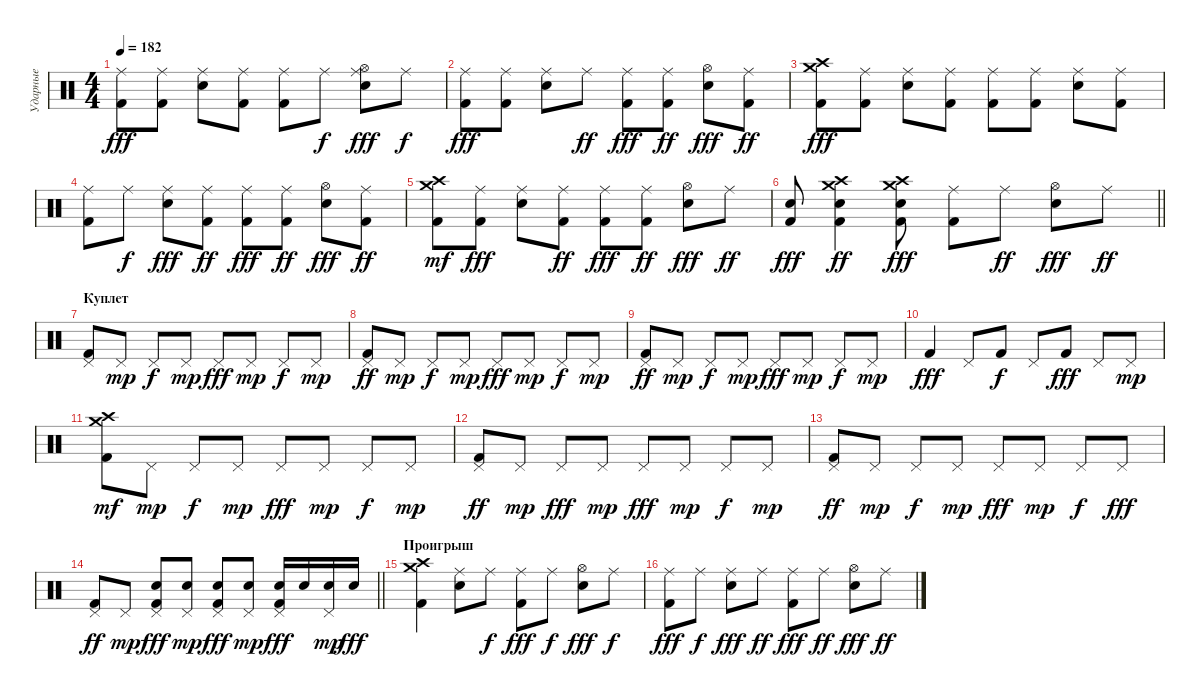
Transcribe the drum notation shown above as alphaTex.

\track ("Ударные" "Ударные") {instrument percussion}
\staff {score}
\articulation defaults
\ts (4 4)
\tempo 182
\clef neutral
\ks c
("Ride (middle)" "Kick (hit) 2").8{dy fff} ("Kick (hit) 2" "Ride (middle)").8 ("Ride (middle)" "Electric Snare (hit)").8 ("Kick (hit) 2" "Ride (middle)").8 ("Ride (middle)" "Kick (hit) 2").8 "Ride (middle)".8{dy f} ("Hi-Hat (open)" "Ride (middle)" "Electric Snare (hit)").8{dy fff} "Ride (middle)".8{dy f} |
("Ride (middle)" "Kick (hit) 2").8{dy fff} ("Kick (hit) 2" "Ride (middle)").8 ("Ride (middle)" "Electric Snare (hit)").8 "Ride (middle)".8{dy ff} ("Ride (middle)" "Kick (hit) 2").8{dy fff} ("Kick (hit) 2" "Ride (middle)").8{dy ff} ("Hi-Hat (open)" "Electric Snare (hit)").8{dy fff} ("Kick (hit) 2" "Ride (middle)").8{dy ff} |
("Crash medium (hit)" "Crash high (hit)" "Kick (hit) 2").8{dy fff} ("Kick (hit) 2" "Ride (middle)").8 ("Ride (middle)" "Electric Snare (hit)").8 ("Ride (middle)" "Kick (hit) 2").8 ("Ride (middle)" "Kick (hit) 2").8 ("Kick (hit) 2" "Ride (middle)").8 ("Ride (middle)" "Electric Snare (hit)").8 ("Kick (hit) 2" "Ride (middle)").8 |
("Ride (middle)" "Kick (hit) 2").8 "Ride (middle)".8{dy f} ("Ride (middle)" "Electric Snare (hit)").8{dy fff} ("Kick (hit) 2" "Ride (middle)").8{dy ff} ("Ride (middle)" "Kick (hit) 2").8{dy fff} ("Kick (hit) 2" "Ride (middle)").8{dy ff} ("Hi-Hat (open)" "Electric Snare (hit)").8{dy fff} ("Kick (hit) 2" "Ride (middle)").8{dy ff} |
("Crash high (hit)" "Kick (hit) 2" "Crash medium (hit)").8{dy mf} ("Kick (hit) 2" "Ride (middle)").8{dy fff} ("Ride (middle)" "Electric Snare (hit)").8 ("Kick (hit) 2" "Ride (middle)").8{dy ff} ("Ride (middle)" "Kick (hit) 2").8{dy fff} ("Kick (hit) 2" "Ride (middle)").8{dy ff} ("Hi-Hat (open)" "Electric Snare (hit)").8{dy fff} "Ride (middle)".8{dy ff} |
\barLineRight lightlight
("Kick (hit) 2" "Electric Snare (hit)").8{dy fff} ("Electric Snare (hit)" "Kick (hit) 2" "Crash medium (hit)" "Crash high (hit)").4{dy ff} ("Crash high (hit)" "Crash medium (hit)" "Electric Snare (hit)" "Kick (hit) 2").8{dy fff} ("Ride (middle)" "Kick (hit) 2").8 "Ride (middle)".8{dy ff} ("Hi-Hat (open)" "Electric Snare (hit)").8{dy fff} "Ride (middle)".8{dy ff} |
\section ("" "Куплет")
("Kick (hit) 2" "Pedal Hi-Hat (hit)").8 "Pedal Hi-Hat (hit)".8{dy mp} "Pedal Hi-Hat (hit)".8{dy f} "Pedal Hi-Hat (hit)".8{dy mp} "Pedal Hi-Hat (hit)".8{dy fff} "Pedal Hi-Hat (hit)".8{dy mp} "Pedal Hi-Hat (hit)".8{dy f} "Pedal Hi-Hat (hit)".8{dy mp} |
("Kick (hit) 2" "Pedal Hi-Hat (hit)").8{dy ff} "Pedal Hi-Hat (hit)".8{dy mp} "Pedal Hi-Hat (hit)".8{dy f} "Pedal Hi-Hat (hit)".8{dy mp} "Pedal Hi-Hat (hit)".8{dy fff} "Pedal Hi-Hat (hit)".8{dy mp} "Pedal Hi-Hat (hit)".8{dy f} "Pedal Hi-Hat (hit)".8{dy mp} |
("Kick (hit) 2" "Pedal Hi-Hat (hit)").8{dy ff} "Pedal Hi-Hat (hit)".8{dy mp} "Pedal Hi-Hat (hit)".8{dy f} "Pedal Hi-Hat (hit)".8{dy mp} "Pedal Hi-Hat (hit)".8{dy fff} "Pedal Hi-Hat (hit)".8{dy mp} "Pedal Hi-Hat (hit)".8{dy f} "Pedal Hi-Hat (hit)".8{dy mp} |
"Kick (hit) 2".4{dy fff} "Pedal Hi-Hat (hit)".8 "Kick (hit) 2".8{dy f} "Pedal Hi-Hat (hit)".8 "Kick (hit) 2".8{dy fff} "Pedal Hi-Hat (hit)".8 "Pedal Hi-Hat (hit)".8{dy mp} |
("Crash medium (hit)" "Kick (hit) 2" "Crash high (hit)").8{dy mf} "Pedal Hi-Hat (hit)".8{dy mp} "Pedal Hi-Hat (hit)".8{dy f} "Pedal Hi-Hat (hit)".8{dy mp} "Pedal Hi-Hat (hit)".8{dy fff} "Pedal Hi-Hat (hit)".8{dy mp} "Pedal Hi-Hat (hit)".8{dy f} "Pedal Hi-Hat (hit)".8{dy mp} |
("Kick (hit) 2" "Pedal Hi-Hat (hit)").8{dy ff} "Pedal Hi-Hat (hit)".8{dy mp} "Pedal Hi-Hat (hit)".8{dy fff} "Pedal Hi-Hat (hit)".8{dy mp} "Pedal Hi-Hat (hit)".8{dy fff} "Pedal Hi-Hat (hit)".8{dy mp} "Pedal Hi-Hat (hit)".8{dy f} "Pedal Hi-Hat (hit)".8{dy mp} |
("Kick (hit) 2" "Pedal Hi-Hat (hit)").8{dy ff} "Pedal Hi-Hat (hit)".8{dy mp} "Pedal Hi-Hat (hit)".8{dy f} "Pedal Hi-Hat (hit)".8{dy mp} "Pedal Hi-Hat (hit)".8{dy fff} "Pedal Hi-Hat (hit)".8{dy mp} "Pedal Hi-Hat (hit)".8{dy f} "Pedal Hi-Hat (hit)".8{dy fff} |
\barLineRight lightlight
("Kick (hit) 2" "Pedal Hi-Hat (hit)").8{dy ff} "Pedal Hi-Hat (hit)".8{dy mp} ("Kick (hit) 2" "Electric Snare (hit)" "Pedal Hi-Hat (hit)").8{dy fff} ("Electric Snare (hit)" "Pedal Hi-Hat (hit)").8{dy mp} ("Kick (hit) 2" "Electric Snare (hit)" "Pedal Hi-Hat (hit)").8{dy fff} ("Electric Snare (hit)" "Pedal Hi-Hat (hit)").8{dy mp} ("Kick (hit) 2" "Electric Snare (hit)" "Pedal Hi-Hat (hit)").16{dy fff} "Electric Snare (hit)".16 ("Electric Snare (hit)" "Pedal Hi-Hat (hit)").16{dy mp} "Electric Snare (hit)".16{dy fff} |
\section ("" "Проигрыш")
("Crash medium (hit)" "Crash high (hit)" "Kick (hit) 2").4 ("Ride (middle)" "Electric Snare (hit)").8 "Ride (middle)".8{dy f} ("Ride (middle)" "Kick (hit) 2").8{dy fff} "Ride (middle)".8{dy f} ("Hi-Hat (open)" "Electric Snare (hit)").8{dy fff} "Ride (middle)".8{dy f} |
("Ride (middle)" "Kick (hit) 2").8{dy fff} "Ride (middle)".8{dy f} ("Ride (middle)" "Electric Snare (hit)").8{dy fff} "Ride (middle)".8{dy ff} ("Ride (middle)" "Kick (hit) 2").8{dy fff} "Ride (middle)".8{dy ff} ("Hi-Hat (open)" "Electric Snare (hit)").8{dy fff} "Ride (middle)".8{dy ff}
